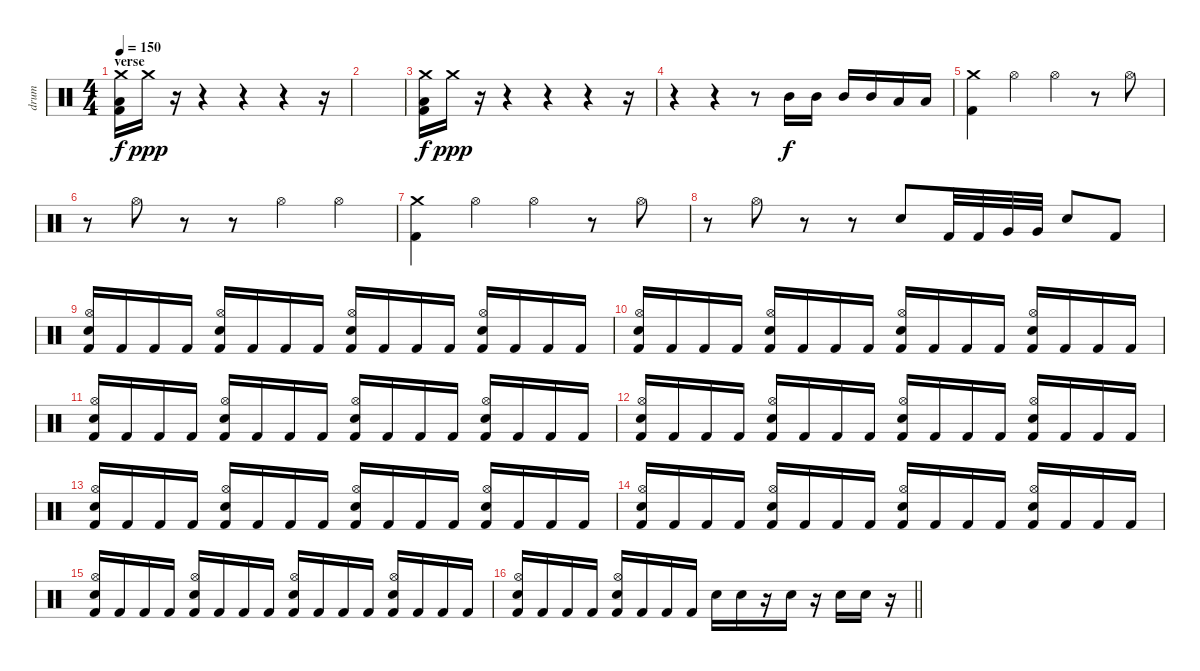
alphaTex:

\track ("drum" "drum") {instrument percussion}
\staff {score}
\articulation defaults
\ts (4 4)
\section ("" "verse")
\tempo 150
\clef neutral
\ks c
("Crash medium (hit)" "Low Floor Tom (hit)" "Kick (hit) 2").16{dy f} "Crash medium (hit)".16{dy ppp} r.16 r.4 r.4 r.4 r.16 |
|
("Crash medium (hit)" "Low Floor Tom (hit)" "Kick (hit) 2").16{dy f} "Crash medium (hit)".16{dy ppp} r.16 r.4 r.4 r.4 r.16 |
r.4 r.4 r.8 "Mid Tom (hit)".16{dy f} "Mid Tom (hit)".16 "Mid Tom (hit)".16 "Mid Tom (hit)".16 "Low Tom (hit)".16 "Low Tom (hit)".16 |
("Crash medium (hit)" "Kick (hit) 2").4 "Hi-Hat (open)".4 "Hi-Hat (open)".4 r.8 "Hi-Hat (open)".8 |
r.8 "Hi-Hat (open)".8 r.8 r.8 "Hi-Hat (open)".4 "Hi-Hat (open)".4 |
("Crash medium (hit)" "Kick (hit) 2").4 "Hi-Hat (open)".4 "Hi-Hat (open)".4 r.8 "Hi-Hat (open)".8 |
r.8 "Hi-Hat (open)".8 r.8 r.8 "Electric Snare (hit)".8 "Kick (hit) 2".32 "Kick (hit) 2".32 "Very Low Tom (hit)".32 "Very Low Tom (hit)".32 "Electric Snare (hit)".8 "Kick (hit) 2".8 |
("Hi-Hat (open)" "Electric Snare (hit)" "Kick (hit) 2").16 "Kick (hit) 2".16 "Kick (hit) 2".16 "Kick (hit) 2".16 ("Hi-Hat (open)" "Electric Snare (hit)" "Kick (hit) 2").16 "Kick (hit) 2".16 "Kick (hit) 2".16 "Kick (hit) 2".16 ("Hi-Hat (open)" "Electric Snare (hit)" "Kick (hit) 2").16 "Kick (hit) 2".16 "Kick (hit) 2".16 "Kick (hit) 2".16 ("Hi-Hat (open)" "Electric Snare (hit)" "Kick (hit) 2").16 "Kick (hit) 2".16 "Kick (hit) 2".16 "Kick (hit) 2".16 |
("Hi-Hat (open)" "Electric Snare (hit)" "Kick (hit) 2").16 "Kick (hit) 2".16 "Kick (hit) 2".16 "Kick (hit) 2".16 ("Hi-Hat (open)" "Electric Snare (hit)" "Kick (hit) 2").16 "Kick (hit) 2".16 "Kick (hit) 2".16 "Kick (hit) 2".16 ("Hi-Hat (open)" "Electric Snare (hit)" "Kick (hit) 2").16 "Kick (hit) 2".16 "Kick (hit) 2".16 "Kick (hit) 2".16 ("Hi-Hat (open)" "Electric Snare (hit)" "Kick (hit) 2").16 "Kick (hit) 2".16 "Kick (hit) 2".16 "Kick (hit) 2".16 |
("Hi-Hat (open)" "Electric Snare (hit)" "Kick (hit) 2").16 "Kick (hit) 2".16 "Kick (hit) 2".16 "Kick (hit) 2".16 ("Hi-Hat (open)" "Electric Snare (hit)" "Kick (hit) 2").16 "Kick (hit) 2".16 "Kick (hit) 2".16 "Kick (hit) 2".16 ("Hi-Hat (open)" "Electric Snare (hit)" "Kick (hit) 2").16 "Kick (hit) 2".16 "Kick (hit) 2".16 "Kick (hit) 2".16 ("Hi-Hat (open)" "Electric Snare (hit)" "Kick (hit) 2").16 "Kick (hit) 2".16 "Kick (hit) 2".16 "Kick (hit) 2".16 |
("Hi-Hat (open)" "Electric Snare (hit)" "Kick (hit) 2").16 "Kick (hit) 2".16 "Kick (hit) 2".16 "Kick (hit) 2".16 ("Hi-Hat (open)" "Electric Snare (hit)" "Kick (hit) 2").16 "Kick (hit) 2".16 "Kick (hit) 2".16 "Kick (hit) 2".16 ("Hi-Hat (open)" "Electric Snare (hit)" "Kick (hit) 2").16 "Kick (hit) 2".16 "Kick (hit) 2".16 "Kick (hit) 2".16 ("Hi-Hat (open)" "Electric Snare (hit)" "Kick (hit) 2").16 "Kick (hit) 2".16 "Kick (hit) 2".16 "Kick (hit) 2".16 |
("Hi-Hat (open)" "Electric Snare (hit)" "Kick (hit) 2").16 "Kick (hit) 2".16 "Kick (hit) 2".16 "Kick (hit) 2".16 ("Hi-Hat (open)" "Electric Snare (hit)" "Kick (hit) 2").16 "Kick (hit) 2".16 "Kick (hit) 2".16 "Kick (hit) 2".16 ("Hi-Hat (open)" "Electric Snare (hit)" "Kick (hit) 2").16 "Kick (hit) 2".16 "Kick (hit) 2".16 "Kick (hit) 2".16 ("Hi-Hat (open)" "Electric Snare (hit)" "Kick (hit) 2").16 "Kick (hit) 2".16 "Kick (hit) 2".16 "Kick (hit) 2".16 |
("Hi-Hat (open)" "Electric Snare (hit)" "Kick (hit) 2").16 "Kick (hit) 2".16 "Kick (hit) 2".16 "Kick (hit) 2".16 ("Hi-Hat (open)" "Electric Snare (hit)" "Kick (hit) 2").16 "Kick (hit) 2".16 "Kick (hit) 2".16 "Kick (hit) 2".16 ("Hi-Hat (open)" "Electric Snare (hit)" "Kick (hit) 2").16 "Kick (hit) 2".16 "Kick (hit) 2".16 "Kick (hit) 2".16 ("Hi-Hat (open)" "Electric Snare (hit)" "Kick (hit) 2").16 "Kick (hit) 2".16 "Kick (hit) 2".16 "Kick (hit) 2".16 |
("Hi-Hat (open)" "Electric Snare (hit)" "Kick (hit) 2").16 "Kick (hit) 2".16 "Kick (hit) 2".16 "Kick (hit) 2".16 ("Hi-Hat (open)" "Electric Snare (hit)" "Kick (hit) 2").16 "Kick (hit) 2".16 "Kick (hit) 2".16 "Kick (hit) 2".16 ("Hi-Hat (open)" "Electric Snare (hit)" "Kick (hit) 2").16 "Kick (hit) 2".16 "Kick (hit) 2".16 "Kick (hit) 2".16 ("Hi-Hat (open)" "Electric Snare (hit)" "Kick (hit) 2").16 "Kick (hit) 2".16 "Kick (hit) 2".16 "Kick (hit) 2".16 |
\barLineRight lightlight
("Hi-Hat (open)" "Electric Snare (hit)" "Kick (hit) 2").16 "Kick (hit) 2".16 "Kick (hit) 2".16 "Kick (hit) 2".16 ("Hi-Hat (open)" "Electric Snare (hit)" "Kick (hit) 2").16 "Kick (hit) 2".16 "Kick (hit) 2".16 "Kick (hit) 2".16 "Electric Snare (hit)".16 "Electric Snare (hit)".16 r.16 "Electric Snare (hit)".16 r.16 "Electric Snare (hit)".16 "Electric Snare (hit)".16 r.16
